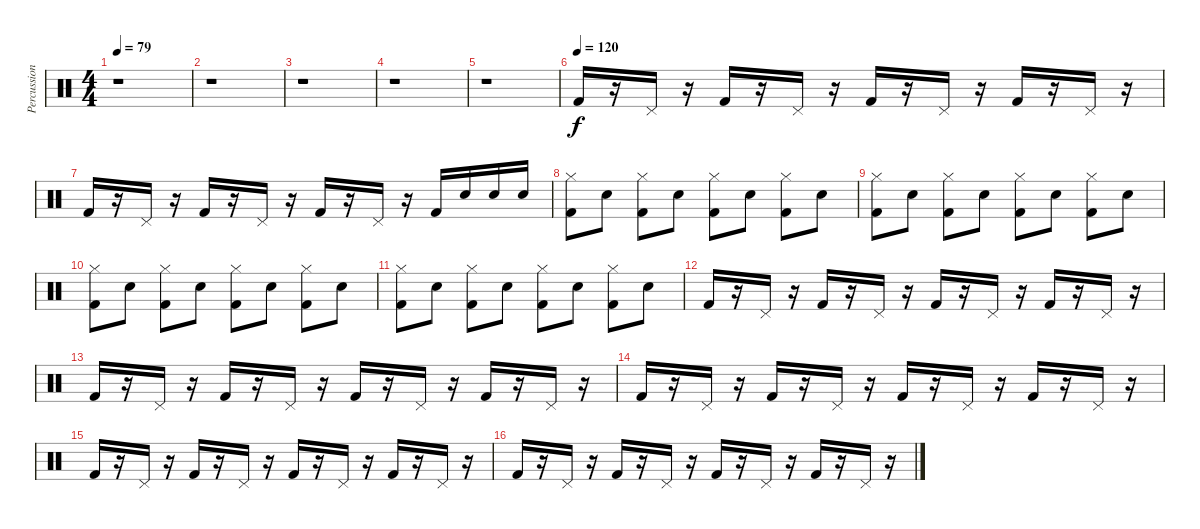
\track ("Percussion" "Percussion") {instrument percussion}
\staff {score}
\articulation defaults
\ts (4 4)
\tempo 79
\clef neutral
\ks c
r.1{dy f} |
r.1 |
r.1 |
r.1 |
r.1 |
\tempo (120)
"Kick (hit) 2".16 r.16 "Pedal Hi-Hat (hit)".16 r.16 "Kick (hit) 2".16 r.16 "Pedal Hi-Hat (hit)".16 r.16 "Kick (hit) 2".16 r.16 "Pedal Hi-Hat (hit)".16 r.16 "Kick (hit) 2".16 r.16 "Pedal Hi-Hat (hit)".16 r.16 |
"Kick (hit) 2".16 r.16 "Pedal Hi-Hat (hit)".16 r.16 "Kick (hit) 2".16 r.16 "Pedal Hi-Hat (hit)".16 r.16 "Kick (hit) 2".16 r.16 "Pedal Hi-Hat (hit)".16 r.16 "Kick (hit) 2".16 "Electric Snare (hit)".16 "Electric Snare (hit)".16 "Electric Snare (hit)".16 |
("Hi-Hat (closed)" "Kick (hit) 2").8 "Electric Snare (hit)".8 ("Hi-Hat (closed)" "Kick (hit) 2").8 "Electric Snare (hit)".8 ("Hi-Hat (closed)" "Kick (hit) 2").8 "Electric Snare (hit)".8 ("Hi-Hat (closed)" "Kick (hit) 2").8 "Electric Snare (hit)".8 |
("Hi-Hat (closed)" "Kick (hit) 2").8 "Electric Snare (hit)".8 ("Hi-Hat (closed)" "Kick (hit) 2").8 "Electric Snare (hit)".8 ("Hi-Hat (closed)" "Kick (hit) 2").8 "Electric Snare (hit)".8 ("Hi-Hat (closed)" "Kick (hit) 2").8 "Electric Snare (hit)".8 |
("Hi-Hat (closed)" "Kick (hit) 2").8 "Electric Snare (hit)".8 ("Hi-Hat (closed)" "Kick (hit) 2").8 "Electric Snare (hit)".8 ("Hi-Hat (closed)" "Kick (hit) 2").8 "Electric Snare (hit)".8 ("Hi-Hat (closed)" "Kick (hit) 2").8 "Electric Snare (hit)".8 |
("Hi-Hat (closed)" "Kick (hit) 2").8 "Electric Snare (hit)".8 ("Hi-Hat (closed)" "Kick (hit) 2").8 "Electric Snare (hit)".8 ("Hi-Hat (closed)" "Kick (hit) 2").8 "Electric Snare (hit)".8 ("Hi-Hat (closed)" "Kick (hit) 2").8 "Electric Snare (hit)".8 |
"Kick (hit) 2".16 r.16 "Pedal Hi-Hat (hit)".16 r.16 "Kick (hit) 2".16 r.16 "Pedal Hi-Hat (hit)".16 r.16 "Kick (hit) 2".16 r.16 "Pedal Hi-Hat (hit)".16 r.16 "Kick (hit) 2".16 r.16 "Pedal Hi-Hat (hit)".16 r.16 |
"Kick (hit) 2".16 r.16 "Pedal Hi-Hat (hit)".16 r.16 "Kick (hit) 2".16 r.16 "Pedal Hi-Hat (hit)".16 r.16 "Kick (hit) 2".16 r.16 "Pedal Hi-Hat (hit)".16 r.16 "Kick (hit) 2".16 r.16 "Pedal Hi-Hat (hit)".16 r.16 |
"Kick (hit) 2".16 r.16 "Pedal Hi-Hat (hit)".16 r.16 "Kick (hit) 2".16 r.16 "Pedal Hi-Hat (hit)".16 r.16 "Kick (hit) 2".16 r.16 "Pedal Hi-Hat (hit)".16 r.16 "Kick (hit) 2".16 r.16 "Pedal Hi-Hat (hit)".16 r.16 |
"Kick (hit) 2".16 r.16 "Pedal Hi-Hat (hit)".16 r.16 "Kick (hit) 2".16 r.16 "Pedal Hi-Hat (hit)".16 r.16 "Kick (hit) 2".16 r.16 "Pedal Hi-Hat (hit)".16 r.16 "Kick (hit) 2".16 r.16 "Pedal Hi-Hat (hit)".16 r.16 |
"Kick (hit) 2".16 r.16 "Pedal Hi-Hat (hit)".16 r.16 "Kick (hit) 2".16 r.16 "Pedal Hi-Hat (hit)".16 r.16 "Kick (hit) 2".16 r.16 "Pedal Hi-Hat (hit)".16 r.16 "Kick (hit) 2".16 r.16 "Pedal Hi-Hat (hit)".16 r.16
